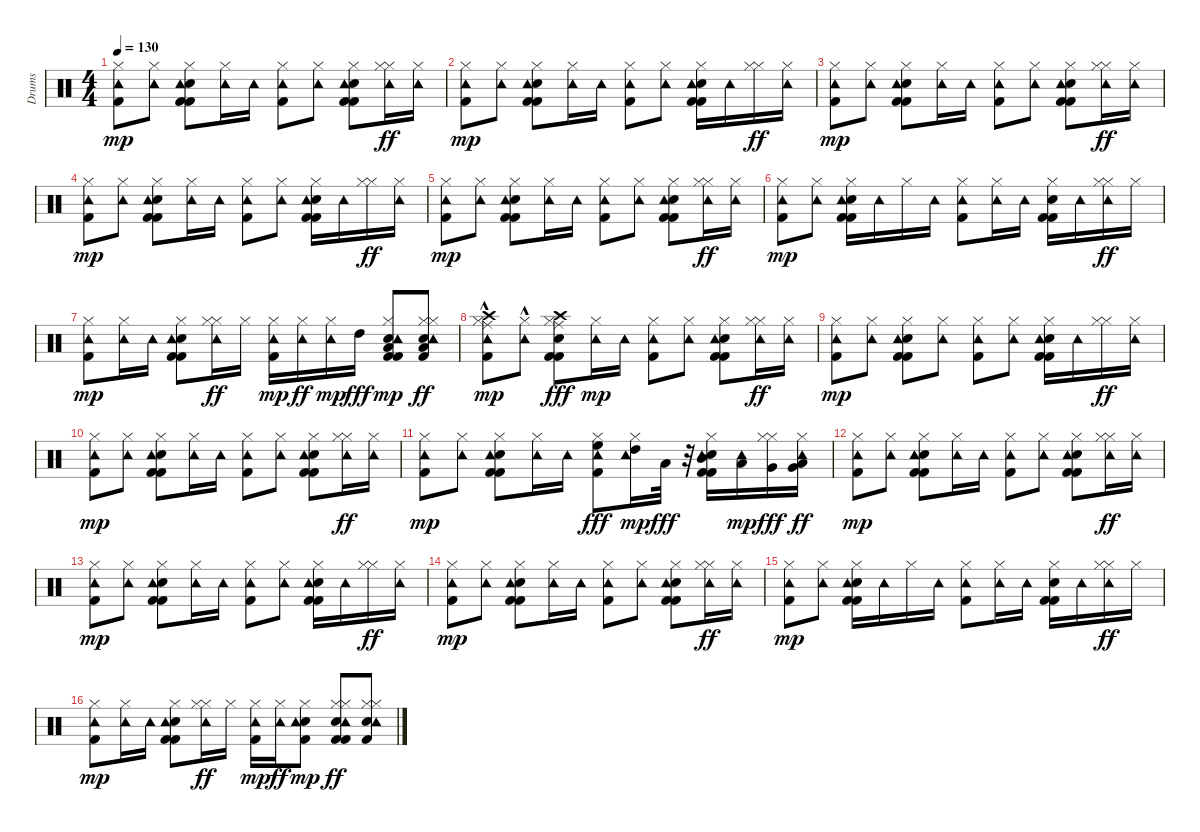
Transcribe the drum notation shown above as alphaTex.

\track ("Drums" "Drums") {instrument percussion}
\staff {score}
\articulation defaults
\ts (4 4)
\tempo 130
\clef neutral
\ks c
("Kick (hit) 2" "Hi-Hat (closed)" "Tambourine (hit)").8{dy mp} ("Hi-Hat (closed)" "Tambourine (hit)").8 ("Kick (hit) 2" "Snare (hit) 2" "Kick (hit) 2" "Hi-Hat (closed)" "Tambourine (hit)").8 ("Hi-Hat (closed)" "Tambourine (hit)").16 "Tambourine (hit)".16 ("Kick (hit) 2" "Hi-Hat (closed)" "Tambourine (hit)").8 ("Hi-Hat (closed)" "Tambourine (hit)").8 ("Kick (hit) 2" "Snare (hit) 2" "Kick (hit) 2" "Hi-Hat (closed)" "Tambourine (hit)").8 ("Hi-Hat (closed)" "Tambourine (hit)" "Hi-Hat (closed)").16{dy ff} ("Tambourine (hit)" "Hi-Hat (closed)").16 |
("Kick (hit) 2" "Hi-Hat (closed)" "Tambourine (hit)").8{dy mp} ("Hi-Hat (closed)" "Tambourine (hit)").8 ("Kick (hit) 2" "Snare (hit) 2" "Kick (hit) 2" "Hi-Hat (closed)" "Tambourine (hit)").8 ("Hi-Hat (closed)" "Tambourine (hit)").16 "Tambourine (hit)".16 ("Kick (hit) 2" "Hi-Hat (closed)" "Tambourine (hit)").8 ("Hi-Hat (closed)" "Tambourine (hit)").8 ("Kick (hit) 2" "Snare (hit) 2" "Kick (hit) 2" "Hi-Hat (closed)" "Tambourine (hit)").16 "Tambourine (hit)".16 ("Hi-Hat (closed)" "Hi-Hat (closed)").16{dy ff} ("Tambourine (hit)" "Hi-Hat (closed)").16 |
("Kick (hit) 2" "Hi-Hat (closed)" "Tambourine (hit)").8{dy mp} ("Hi-Hat (closed)" "Tambourine (hit)").8 ("Kick (hit) 2" "Snare (hit) 2" "Kick (hit) 2" "Hi-Hat (closed)" "Tambourine (hit)").8 ("Hi-Hat (closed)" "Tambourine (hit)").16 "Tambourine (hit)".16 ("Kick (hit) 2" "Hi-Hat (closed)" "Tambourine (hit)").8 ("Hi-Hat (closed)" "Tambourine (hit)").8 ("Kick (hit) 2" "Snare (hit) 2" "Kick (hit) 2" "Hi-Hat (closed)" "Tambourine (hit)").8 ("Hi-Hat (closed)" "Tambourine (hit)" "Hi-Hat (closed)").16{dy ff} ("Tambourine (hit)" "Hi-Hat (closed)").16 |
("Kick (hit) 2" "Hi-Hat (closed)" "Tambourine (hit)").8{dy mp} ("Hi-Hat (closed)" "Tambourine (hit)").8 ("Kick (hit) 2" "Snare (hit) 2" "Kick (hit) 2" "Hi-Hat (closed)" "Tambourine (hit)").8 ("Hi-Hat (closed)" "Tambourine (hit)").16 "Tambourine (hit)".16 ("Kick (hit) 2" "Hi-Hat (closed)" "Tambourine (hit)").8 ("Hi-Hat (closed)" "Tambourine (hit)").8 ("Kick (hit) 2" "Snare (hit) 2" "Kick (hit) 2" "Hi-Hat (closed)" "Tambourine (hit)").16 "Tambourine (hit)".16 ("Hi-Hat (closed)" "Hi-Hat (closed)").16{dy ff} ("Tambourine (hit)" "Hi-Hat (closed)").16 |
("Kick (hit) 2" "Hi-Hat (closed)" "Tambourine (hit)").8{dy mp} ("Hi-Hat (closed)" "Tambourine (hit)").8 ("Kick (hit) 2" "Snare (hit) 2" "Kick (hit) 2" "Hi-Hat (closed)" "Tambourine (hit)").8 ("Hi-Hat (closed)" "Tambourine (hit)").16 "Tambourine (hit)".16 ("Kick (hit) 2" "Hi-Hat (closed)" "Tambourine (hit)").8 ("Hi-Hat (closed)" "Tambourine (hit)").8 ("Kick (hit) 2" "Snare (hit) 2" "Kick (hit) 2" "Hi-Hat (closed)" "Tambourine (hit)").8 ("Hi-Hat (closed)" "Tambourine (hit)" "Hi-Hat (closed)").16{dy ff} ("Tambourine (hit)" "Hi-Hat (closed)").16 |
("Kick (hit) 2" "Hi-Hat (closed)" "Tambourine (hit)").8{dy mp} ("Hi-Hat (closed)" "Tambourine (hit)").8 ("Kick (hit) 2" "Snare (hit) 2" "Kick (hit) 2" "Hi-Hat (closed)" "Tambourine (hit)").16 "Tambourine (hit)".16 "Hi-Hat (closed)".16 "Tambourine (hit)".16 ("Kick (hit) 2" "Hi-Hat (closed)" "Tambourine (hit)").8 ("Hi-Hat (closed)" "Tambourine (hit)").16 "Tambourine (hit)".16 ("Kick (hit) 2" "Snare (hit) 2" "Kick (hit) 2" "Hi-Hat (closed)").16 "Tambourine (hit)".16 ("Hi-Hat (closed)" "Tambourine (hit)" "Hi-Hat (closed)").16{dy ff} "Hi-Hat (closed)".16 |
("Kick (hit) 2" "Hi-Hat (closed)" "Tambourine (hit)").8{dy mp} ("Hi-Hat (closed)" "Tambourine (hit)").16 "Tambourine (hit)".16 ("Kick (hit) 2" "Snare (hit) 2" "Kick (hit) 2" "Hi-Hat (closed)" "Tambourine (hit)").8 ("Hi-Hat (closed)" "Tambourine (hit)" "Hi-Hat (closed)").16{dy ff} "Hi-Hat (closed)".16 ("Kick (hit) 2" "Hi-Hat (closed)" "Tambourine (hit)").16{dy mp} ("Tambourine (hit)" "Hi-Hat (closed)").16{dy ff} ("Hi-Hat (closed)" "Tambourine (hit)").16{dy mp} "High Tom (hit)".16{dy fff} ("Kick (hit) 2" "Snare (hit) 2" "Kick (hit) 2" "Hi-Hat (closed)" "Low Tom (hit)" "Tambourine (hit)").8{dy mp} ("Snare (hit) 2" "Kick (hit) 2" "Hi-Hat (closed)" "Low Floor Tom (hit)" "Tambourine (hit)" "Hi-Hat (closed)").8{dy ff} |
("Kick (hit) 2" "Hi-Hat (closed)" "Ride (middle)"{hac} "Crash high (hit)"{hac} "Tambourine (hit)").8{dy mp} ("Hi-Hat (closed)" "Tambourine (hit)"{hac}).8 ("Kick (hit) 2" "Kick (hit) 2" "Snare (hit) 2" "Hi-Hat (closed)" "Ride (middle)" "Crash high (hit)").8{dy fff} ("Hi-Hat (closed)" "Tambourine (hit)").16{dy mp} "Tambourine (hit)".16 ("Kick (hit) 2" "Hi-Hat (closed)" "Tambourine (hit)").8 ("Hi-Hat (closed)" "Tambourine (hit)").8 ("Kick (hit) 2" "Snare (hit) 2" "Kick (hit) 2" "Hi-Hat (closed)" "Tambourine (hit)").8 ("Hi-Hat (closed)" "Tambourine (hit)" "Hi-Hat (closed)").16{dy ff} ("Tambourine (hit)" "Hi-Hat (closed)").16 |
("Kick (hit) 2" "Hi-Hat (closed)" "Tambourine (hit)").8{dy mp} ("Hi-Hat (closed)" "Tambourine (hit)").8 ("Kick (hit) 2" "Snare (hit) 2" "Kick (hit) 2" "Hi-Hat (closed)" "Tambourine (hit)").8 ("Hi-Hat (closed)" "Tambourine (hit)").8 ("Kick (hit) 2" "Hi-Hat (closed)" "Tambourine (hit)").8 ("Hi-Hat (closed)" "Tambourine (hit)").8 ("Kick (hit) 2" "Kick (hit) 2" "Snare (hit) 2" "Hi-Hat (closed)" "Tambourine (hit)").16 "Tambourine (hit)".16 ("Hi-Hat (closed)" "Hi-Hat (closed)").16{dy ff} ("Tambourine (hit)" "Hi-Hat (closed)").16 |
("Kick (hit) 2" "Hi-Hat (closed)" "Tambourine (hit)").8{dy mp} ("Hi-Hat (closed)" "Tambourine (hit)").8 ("Kick (hit) 2" "Kick (hit) 2" "Snare (hit) 2" "Hi-Hat (closed)" "Tambourine (hit)").8 ("Hi-Hat (closed)" "Tambourine (hit)").16 "Tambourine (hit)".16 ("Kick (hit) 2" "Hi-Hat (closed)" "Tambourine (hit)").8 ("Hi-Hat (closed)" "Tambourine (hit)").8 ("Kick (hit) 2" "Kick (hit) 2" "Snare (hit) 2" "Hi-Hat (closed)" "Tambourine (hit)").8 ("Hi-Hat (closed)" "Tambourine (hit)" "Hi-Hat (closed)").16{dy ff} ("Tambourine (hit)" "Hi-Hat (closed)").16 |
("Kick (hit) 2" "Hi-Hat (closed)" "Tambourine (hit)").8{dy mp} ("Hi-Hat (closed)" "Tambourine (hit)").8 ("Kick (hit) 2" "Snare (hit) 2" "Kick (hit) 2" "Hi-Hat (closed)" "Tambourine (hit)").8 ("Hi-Hat (closed)" "Tambourine (hit)").16 "Tambourine (hit)".16 ("Kick (hit) 2" "Hi-Hat (closed)" "Tambourine (hit)" "High Floor Tom (hit)").8{dy fff} ("Hi-Hat (closed)" "High Tom (hit)" "Tambourine (hit)").16{dy mp} "Low Tom (hit)".32{dy fff} r.32 ("Kick (hit) 2" "Snare (hit) 2" "Kick (hit) 2" "Hi-Hat (closed)" "Tambourine (hit)" "Mid Tom (hit)").16 ("Low Tom (hit)" "Tambourine (hit)").16{dy mp} ("Hi-Hat (closed)" "Hi-Hat (closed)" "Very Low Tom (hit)").16{dy fff} ("Very Low Tom (hit)" "Low Floor Tom (hit)" "Tambourine (hit)" "Hi-Hat (closed)").16{dy ff} |
("Kick (hit) 2" "Hi-Hat (closed)" "Tambourine (hit)").8{dy mp} ("Hi-Hat (closed)" "Tambourine (hit)").8 ("Kick (hit) 2" "Snare (hit) 2" "Kick (hit) 2" "Hi-Hat (closed)" "Tambourine (hit)").8 ("Hi-Hat (closed)" "Tambourine (hit)").16 "Tambourine (hit)".16 ("Kick (hit) 2" "Hi-Hat (closed)" "Tambourine (hit)").8 ("Hi-Hat (closed)" "Tambourine (hit)").8 ("Kick (hit) 2" "Snare (hit) 2" "Kick (hit) 2" "Hi-Hat (closed)" "Tambourine (hit)").8 ("Hi-Hat (closed)" "Tambourine (hit)" "Hi-Hat (closed)").16{dy ff} ("Tambourine (hit)" "Hi-Hat (closed)").16 |
("Kick (hit) 2" "Hi-Hat (closed)" "Tambourine (hit)").8{dy mp} ("Hi-Hat (closed)" "Tambourine (hit)").8 ("Kick (hit) 2" "Snare (hit) 2" "Kick (hit) 2" "Hi-Hat (closed)" "Tambourine (hit)").8 ("Hi-Hat (closed)" "Tambourine (hit)").16 "Tambourine (hit)".16 ("Kick (hit) 2" "Hi-Hat (closed)" "Tambourine (hit)").8 ("Hi-Hat (closed)" "Tambourine (hit)").8 ("Kick (hit) 2" "Snare (hit) 2" "Kick (hit) 2" "Hi-Hat (closed)" "Tambourine (hit)").16 "Tambourine (hit)".16 ("Hi-Hat (closed)" "Hi-Hat (closed)").16{dy ff} ("Tambourine (hit)" "Hi-Hat (closed)").16 |
("Kick (hit) 2" "Hi-Hat (closed)" "Tambourine (hit)").8{dy mp} ("Hi-Hat (closed)" "Tambourine (hit)").8 ("Kick (hit) 2" "Snare (hit) 2" "Kick (hit) 2" "Hi-Hat (closed)" "Tambourine (hit)").8 ("Hi-Hat (closed)" "Tambourine (hit)").16 "Tambourine (hit)".16 ("Kick (hit) 2" "Hi-Hat (closed)" "Tambourine (hit)").8 ("Hi-Hat (closed)" "Tambourine (hit)").8 ("Kick (hit) 2" "Snare (hit) 2" "Kick (hit) 2" "Hi-Hat (closed)" "Tambourine (hit)").8 ("Hi-Hat (closed)" "Tambourine (hit)" "Hi-Hat (closed)").16{dy ff} ("Tambourine (hit)" "Hi-Hat (closed)").16 |
("Kick (hit) 2" "Hi-Hat (closed)" "Tambourine (hit)").8{dy mp} ("Hi-Hat (closed)" "Tambourine (hit)").8 ("Kick (hit) 2" "Kick (hit) 2" "Snare (hit) 2" "Hi-Hat (closed)" "Tambourine (hit)").16 "Tambourine (hit)".16 "Hi-Hat (closed)".16 "Tambourine (hit)".16 ("Kick (hit) 2" "Hi-Hat (closed)" "Tambourine (hit)").8 ("Hi-Hat (closed)" "Tambourine (hit)").16 "Tambourine (hit)".16 ("Kick (hit) 2" "Snare (hit) 2" "Kick (hit) 2" "Hi-Hat (closed)").16 "Tambourine (hit)".16 ("Hi-Hat (closed)" "Tambourine (hit)" "Hi-Hat (closed)").16{dy ff} "Hi-Hat (closed)".16 |
("Kick (hit) 2" "Hi-Hat (closed)" "Tambourine (hit)").8{dy mp} ("Hi-Hat (closed)" "Tambourine (hit)").16 "Tambourine (hit)".16 ("Kick (hit) 2" "Snare (hit) 2" "Kick (hit) 2" "Hi-Hat (closed)" "Tambourine (hit)").8 ("Hi-Hat (closed)" "Tambourine (hit)" "Hi-Hat (closed)").16{dy ff} "Hi-Hat (closed)".16 ("Kick (hit) 2" "Hi-Hat (closed)" "Tambourine (hit)").16{dy mp} ("Tambourine (hit)" "Hi-Hat (closed)").16{dy ff} ("Snare (hit) 2" "Kick (hit) 2" "Hi-Hat (closed)" "Tambourine (hit)").8{dy mp} ("Kick (hit) 2" "Kick (hit) 2" "Snare (hit) 2" "Hi-Hat (closed)" "Tambourine (hit)" "Hi-Hat (closed)").8{dy ff} ("Kick (hit) 2" "Snare (hit) 2" "Hi-Hat (closed)" "Tambourine (hit)" "Hi-Hat (closed)").8
